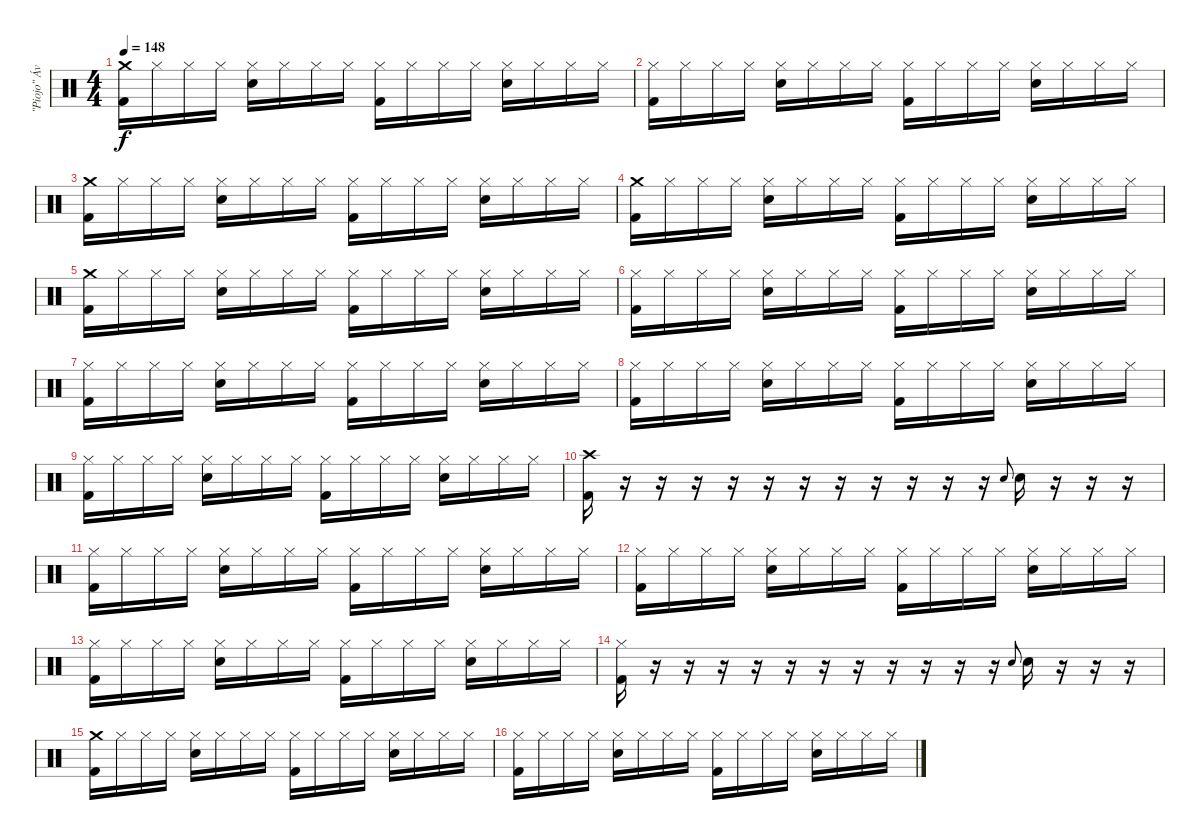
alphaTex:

\track ("\"Piojo\" Ávalos" "\"Piojo\" Áv") {instrument percussion}
\staff {score}
\articulation defaults
\ts (4 4)
\tempo 148
\clef neutral
\ks c
("Crash medium (hit)" "Kick (hit) 2").16{dy f} "Hi-Hat (closed)".16 "Hi-Hat (closed)".16 "Hi-Hat (closed)".16 ("Hi-Hat (closed)" "Electric Snare (hit)").16 "Hi-Hat (closed)".16 "Hi-Hat (closed)".16 "Hi-Hat (closed)".16 ("Hi-Hat (closed)" "Kick (hit) 2").16 "Hi-Hat (closed)".16 "Hi-Hat (closed)".16 "Hi-Hat (closed)".16 ("Hi-Hat (closed)" "Electric Snare (hit)").16 "Hi-Hat (closed)".16 "Hi-Hat (closed)".16 "Hi-Hat (closed)".16 |
("Hi-Hat (closed)" "Kick (hit) 2").16 "Hi-Hat (closed)".16 "Hi-Hat (closed)".16 "Hi-Hat (closed)".16 ("Hi-Hat (closed)" "Electric Snare (hit)").16 "Hi-Hat (closed)".16 "Hi-Hat (closed)".16 "Hi-Hat (closed)".16 ("Hi-Hat (closed)" "Kick (hit) 2").16 "Hi-Hat (closed)".16 "Hi-Hat (closed)".16 "Hi-Hat (closed)".16 ("Hi-Hat (closed)" "Electric Snare (hit)").16 "Hi-Hat (closed)".16 "Hi-Hat (closed)".16 "Hi-Hat (closed)".16 |
("Crash medium (hit)" "Kick (hit) 2").16 "Hi-Hat (closed)".16 "Hi-Hat (closed)".16 "Hi-Hat (closed)".16 ("Hi-Hat (closed)" "Electric Snare (hit)").16 "Hi-Hat (closed)".16 "Hi-Hat (closed)".16 "Hi-Hat (closed)".16 ("Hi-Hat (closed)" "Kick (hit) 2").16 "Hi-Hat (closed)".16 "Hi-Hat (closed)".16 "Hi-Hat (closed)".16 ("Hi-Hat (closed)" "Electric Snare (hit)").16 "Hi-Hat (closed)".16 "Hi-Hat (closed)".16 "Hi-Hat (closed)".16 |
("Crash medium (hit)" "Kick (hit) 2").16 "Hi-Hat (closed)".16 "Hi-Hat (closed)".16 "Hi-Hat (closed)".16 ("Hi-Hat (closed)" "Electric Snare (hit)").16 "Hi-Hat (closed)".16 "Hi-Hat (closed)".16 "Hi-Hat (closed)".16 ("Hi-Hat (closed)" "Kick (hit) 2").16 "Hi-Hat (closed)".16 "Hi-Hat (closed)".16 "Hi-Hat (closed)".16 ("Hi-Hat (closed)" "Electric Snare (hit)").16 "Hi-Hat (closed)".16 "Hi-Hat (closed)".16 "Hi-Hat (closed)".16 |
("Crash medium (hit)" "Kick (hit) 2").16 "Hi-Hat (closed)".16 "Hi-Hat (closed)".16 "Hi-Hat (closed)".16 ("Hi-Hat (closed)" "Electric Snare (hit)").16 "Hi-Hat (closed)".16 "Hi-Hat (closed)".16 "Hi-Hat (closed)".16 ("Hi-Hat (closed)" "Kick (hit) 2").16 "Hi-Hat (closed)".16 "Hi-Hat (closed)".16 "Hi-Hat (closed)".16 ("Hi-Hat (closed)" "Electric Snare (hit)").16 "Hi-Hat (closed)".16 "Hi-Hat (closed)".16 "Hi-Hat (closed)".16 |
("Hi-Hat (closed)" "Kick (hit) 2").16 "Hi-Hat (closed)".16 "Hi-Hat (closed)".16 "Hi-Hat (closed)".16 ("Hi-Hat (closed)" "Electric Snare (hit)").16 "Hi-Hat (closed)".16 "Hi-Hat (closed)".16 "Hi-Hat (closed)".16 ("Hi-Hat (closed)" "Kick (hit) 2").16 "Hi-Hat (closed)".16 "Hi-Hat (closed)".16 "Hi-Hat (closed)".16 ("Hi-Hat (closed)" "Electric Snare (hit)").16 "Hi-Hat (closed)".16 "Hi-Hat (closed)".16 "Hi-Hat (closed)".16 |
("Hi-Hat (closed)" "Kick (hit) 2").16 "Hi-Hat (closed)".16 "Hi-Hat (closed)".16 "Hi-Hat (closed)".16 ("Hi-Hat (closed)" "Electric Snare (hit)").16 "Hi-Hat (closed)".16 "Hi-Hat (closed)".16 "Hi-Hat (closed)".16 ("Hi-Hat (closed)" "Kick (hit) 2").16 "Hi-Hat (closed)".16 "Hi-Hat (closed)".16 "Hi-Hat (closed)".16 ("Hi-Hat (closed)" "Electric Snare (hit)").16 "Hi-Hat (closed)".16 "Hi-Hat (closed)".16 "Hi-Hat (closed)".16 |
("Hi-Hat (closed)" "Kick (hit) 2").16 "Hi-Hat (closed)".16 "Hi-Hat (closed)".16 "Hi-Hat (closed)".16 ("Hi-Hat (closed)" "Electric Snare (hit)").16 "Hi-Hat (closed)".16 "Hi-Hat (closed)".16 "Hi-Hat (closed)".16 ("Hi-Hat (closed)" "Kick (hit) 2").16 "Hi-Hat (closed)".16 "Hi-Hat (closed)".16 "Hi-Hat (closed)".16 ("Hi-Hat (closed)" "Electric Snare (hit)").16 "Hi-Hat (closed)".16 "Hi-Hat (closed)".16 "Hi-Hat (closed)".16 |
("Hi-Hat (closed)" "Kick (hit) 2").16 "Hi-Hat (closed)".16 "Hi-Hat (closed)".16 "Hi-Hat (closed)".16 ("Hi-Hat (closed)" "Electric Snare (hit)").16 "Hi-Hat (closed)".16 "Hi-Hat (closed)".16 "Hi-Hat (closed)".16 ("Hi-Hat (closed)" "Kick (hit) 2").16 "Hi-Hat (closed)".16 "Hi-Hat (closed)".16 "Hi-Hat (closed)".16 ("Hi-Hat (closed)" "Electric Snare (hit)").16 "Hi-Hat (closed)".16 "Hi-Hat (closed)".16 "Hi-Hat (closed)".16 |
("Crash high (hit)" "Kick (hit) 2").16 r.16 r.16 r.16 r.16 r.16 r.16 r.16 r.16 r.16 r.16 r.16 "Electric Snare (hit)".8{gr onbeat} "Electric Snare (hit)".16 r.16 r.16 r.16 |
("Hi-Hat (closed)" "Kick (hit) 2").16 "Hi-Hat (closed)".16 "Hi-Hat (closed)".16 "Hi-Hat (closed)".16 ("Hi-Hat (closed)" "Electric Snare (hit)").16 "Hi-Hat (closed)".16 "Hi-Hat (closed)".16 "Hi-Hat (closed)".16 ("Hi-Hat (closed)" "Kick (hit) 2").16 "Hi-Hat (closed)".16 "Hi-Hat (closed)".16 "Hi-Hat (closed)".16 ("Hi-Hat (closed)" "Electric Snare (hit)").16 "Hi-Hat (closed)".16 "Hi-Hat (closed)".16 "Hi-Hat (closed)".16 |
("Hi-Hat (closed)" "Kick (hit) 2").16 "Hi-Hat (closed)".16 "Hi-Hat (closed)".16 "Hi-Hat (closed)".16 ("Hi-Hat (closed)" "Electric Snare (hit)").16 "Hi-Hat (closed)".16 "Hi-Hat (closed)".16 "Hi-Hat (closed)".16 ("Hi-Hat (closed)" "Kick (hit) 2").16 "Hi-Hat (closed)".16 "Hi-Hat (closed)".16 "Hi-Hat (closed)".16 ("Hi-Hat (closed)" "Electric Snare (hit)").16 "Hi-Hat (closed)".16 "Hi-Hat (closed)".16 "Hi-Hat (closed)".16 |
("Hi-Hat (closed)" "Kick (hit) 2").16 "Hi-Hat (closed)".16 "Hi-Hat (closed)".16 "Hi-Hat (closed)".16 ("Hi-Hat (closed)" "Electric Snare (hit)").16 "Hi-Hat (closed)".16 "Hi-Hat (closed)".16 "Hi-Hat (closed)".16 ("Hi-Hat (closed)" "Kick (hit) 2").16 "Hi-Hat (closed)".16 "Hi-Hat (closed)".16 "Hi-Hat (closed)".16 ("Hi-Hat (closed)" "Electric Snare (hit)").16 "Hi-Hat (closed)".16 "Hi-Hat (closed)".16 "Hi-Hat (closed)".16 |
("Hi-Hat (closed)" "Kick (hit) 2").16 r.16 r.16 r.16 r.16 r.16 r.16 r.16 r.16 r.16 r.16 r.16 "Electric Snare (hit)".8{gr onbeat} "Electric Snare (hit)".16 r.16 r.16 r.16 |
("Crash medium (hit)" "Kick (hit) 2").16 "Hi-Hat (closed)".16 "Hi-Hat (closed)".16 "Hi-Hat (closed)".16 ("Hi-Hat (closed)" "Electric Snare (hit)").16 "Hi-Hat (closed)".16 "Hi-Hat (closed)".16 "Hi-Hat (closed)".16 ("Hi-Hat (closed)" "Kick (hit) 2").16 "Hi-Hat (closed)".16 "Hi-Hat (closed)".16 "Hi-Hat (closed)".16 ("Hi-Hat (closed)" "Electric Snare (hit)").16 "Hi-Hat (closed)".16 "Hi-Hat (closed)".16 "Hi-Hat (closed)".16 |
("Hi-Hat (closed)" "Kick (hit) 2").16 "Hi-Hat (closed)".16 "Hi-Hat (closed)".16 "Hi-Hat (closed)".16 ("Hi-Hat (closed)" "Electric Snare (hit)").16 "Hi-Hat (closed)".16 "Hi-Hat (closed)".16 "Hi-Hat (closed)".16 ("Hi-Hat (closed)" "Kick (hit) 2").16 "Hi-Hat (closed)".16 "Hi-Hat (closed)".16 "Hi-Hat (closed)".16 ("Hi-Hat (closed)" "Electric Snare (hit)").16 "Hi-Hat (closed)".16 "Hi-Hat (closed)".16 "Hi-Hat (closed)".16
